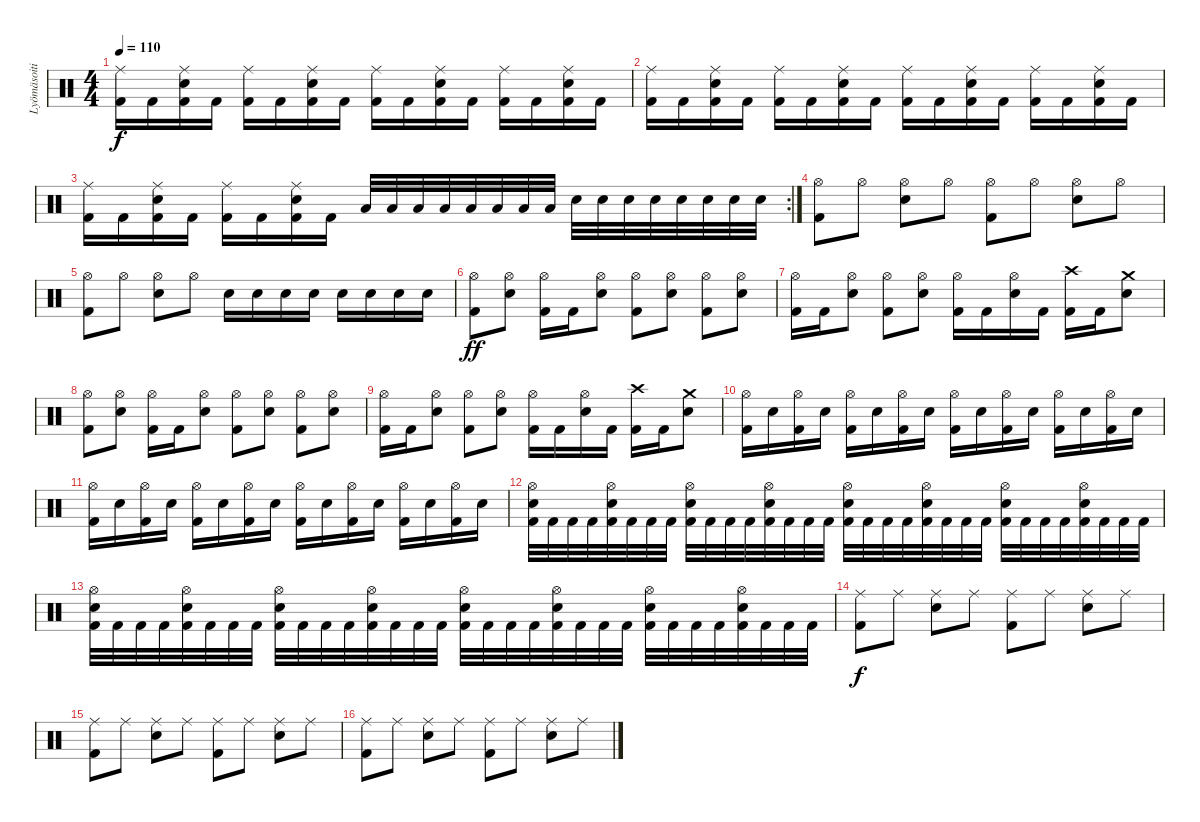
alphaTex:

\track ("Lyömäsoitin" "Lyömäsoiti") {instrument percussion}
\staff {score}
\articulation defaults
\ts (4 4)
\tempo 110
\clef neutral
\ks c
("Ride (middle)" "Kick (hit) 2").16{dy f} "Kick (hit) 2".16 ("Ride (middle)" "Kick (hit) 2" "Snare (hit) 2").16 "Kick (hit) 2".16 ("Ride (middle)" "Kick (hit) 2").16 "Kick (hit) 2".16 ("Ride (middle)" "Kick (hit) 2" "Snare (hit) 2").16 "Kick (hit) 2".16 ("Ride (middle)" "Kick (hit) 2").16 "Kick (hit) 2".16 ("Ride (middle)" "Kick (hit) 2" "Snare (hit) 2").16 "Kick (hit) 2".16 ("Ride (middle)" "Kick (hit) 2").16 "Kick (hit) 2".16 ("Ride (middle)" "Kick (hit) 2" "Snare (hit) 2").16 "Kick (hit) 2".16 |
("Ride (middle)" "Kick (hit) 2").16 "Kick (hit) 2".16 ("Ride (middle)" "Kick (hit) 2" "Snare (hit) 2").16 "Kick (hit) 2".16 ("Ride (middle)" "Kick (hit) 2").16 "Kick (hit) 2".16 ("Ride (middle)" "Kick (hit) 2" "Snare (hit) 2").16 "Kick (hit) 2".16 ("Ride (middle)" "Kick (hit) 2").16 "Kick (hit) 2".16 ("Ride (middle)" "Kick (hit) 2" "Snare (hit) 2").16 "Kick (hit) 2".16 ("Ride (middle)" "Kick (hit) 2").16 "Kick (hit) 2".16 ("Ride (middle)" "Kick (hit) 2" "Snare (hit) 2").16 "Kick (hit) 2".16 |
\rc 2
("Ride (middle)" "Kick (hit) 2").16 "Kick (hit) 2".16 ("Ride (middle)" "Kick (hit) 2" "Snare (hit) 2").16 "Kick (hit) 2".16 ("Ride (middle)" "Kick (hit) 2").16 "Kick (hit) 2".16 ("Ride (middle)" "Kick (hit) 2" "Snare (hit) 2").16 "Kick (hit) 2".16 "Low Tom (hit)".32 "Low Tom (hit)".32 "Low Tom (hit)".32 "Low Tom (hit)".32 "Low Tom (hit)".32 "Low Tom (hit)".32 "Low Tom (hit)".32 "Low Tom (hit)".32 "Snare (hit) 2".32 "Snare (hit) 2".32 "Snare (hit) 2".32 "Snare (hit) 2".32 "Snare (hit) 2".32 "Snare (hit) 2".32 "Snare (hit) 2".32 "Snare (hit) 2".32 |
("Hi-Hat (open)" "Kick (hit) 2").8 "Hi-Hat (open)".8 ("Hi-Hat (open)" "Snare (hit) 2").8 "Hi-Hat (open)".8 ("Hi-Hat (open)" "Kick (hit) 2").8 "Hi-Hat (open)".8 ("Hi-Hat (open)" "Snare (hit) 2").8 "Hi-Hat (open)".8 |
("Hi-Hat (open)" "Kick (hit) 2").8 "Hi-Hat (open)".8 ("Hi-Hat (open)" "Snare (hit) 2").8 "Hi-Hat (open)".8 "Snare (hit) 2".16 "Snare (hit) 2".16 "Snare (hit) 2".16 "Snare (hit) 2".16 "Snare (hit) 2".16 "Snare (hit) 2".16 "Snare (hit) 2".16 "Snare (hit) 2".16 |
("Hi-Hat (open)" "Kick (hit) 2").8{dy ff} ("Hi-Hat (open)" "Snare (hit) 2").8 ("Hi-Hat (open)" "Kick (hit) 2").16 "Kick (hit) 2".16 ("Hi-Hat (open)" "Snare (hit) 2").8 ("Hi-Hat (open)" "Kick (hit) 2").8 ("Hi-Hat (open)" "Snare (hit) 2").8 ("Hi-Hat (open)" "Kick (hit) 2").8 ("Hi-Hat (open)" "Snare (hit) 2").8 |
("Hi-Hat (open)" "Kick (hit) 2").16 "Kick (hit) 2".16 ("Hi-Hat (open)" "Snare (hit) 2").8 ("Hi-Hat (open)" "Kick (hit) 2").8 ("Hi-Hat (open)" "Snare (hit) 2").8 ("Hi-Hat (open)" "Kick (hit) 2").16 "Kick (hit) 2".16 ("Hi-Hat (open)" "Snare (hit) 2").16 "Kick (hit) 2".16 ("Crash high (hit)" "Kick (hit) 2").16 "Kick (hit) 2".16 ("Crash medium (hit)" "Snare (hit) 2").8 |
("Hi-Hat (open)" "Kick (hit) 2").8 ("Hi-Hat (open)" "Snare (hit) 2").8 ("Hi-Hat (open)" "Kick (hit) 2").16 "Kick (hit) 2".16 ("Hi-Hat (open)" "Snare (hit) 2").8 ("Hi-Hat (open)" "Kick (hit) 2").8 ("Hi-Hat (open)" "Snare (hit) 2").8 ("Hi-Hat (open)" "Kick (hit) 2").8 ("Hi-Hat (open)" "Snare (hit) 2").8 |
("Hi-Hat (open)" "Kick (hit) 2").16 "Kick (hit) 2".16 ("Hi-Hat (open)" "Snare (hit) 2").8 ("Hi-Hat (open)" "Kick (hit) 2").8 ("Hi-Hat (open)" "Snare (hit) 2").8 ("Hi-Hat (open)" "Kick (hit) 2").16 "Kick (hit) 2".16 ("Hi-Hat (open)" "Snare (hit) 2").16 "Kick (hit) 2".16 ("Crash high (hit)" "Kick (hit) 2").16 "Kick (hit) 2".16 ("Crash medium (hit)" "Snare (hit) 2").8 |
("Hi-Hat (open)" "Kick (hit) 2").16 "Snare (hit) 2".16 ("Hi-Hat (open)" "Kick (hit) 2").16 "Snare (hit) 2".16 ("Hi-Hat (open)" "Kick (hit) 2").16 "Snare (hit) 2".16 ("Hi-Hat (open)" "Kick (hit) 2").16 "Snare (hit) 2".16 ("Hi-Hat (open)" "Kick (hit) 2").16 "Snare (hit) 2".16 ("Hi-Hat (open)" "Kick (hit) 2").16 "Snare (hit) 2".16 ("Hi-Hat (open)" "Kick (hit) 2").16 "Snare (hit) 2".16 ("Hi-Hat (open)" "Kick (hit) 2").16 "Snare (hit) 2".16 |
("Hi-Hat (open)" "Kick (hit) 2").16 "Snare (hit) 2".16 ("Hi-Hat (open)" "Kick (hit) 2").16 "Snare (hit) 2".16 ("Hi-Hat (open)" "Kick (hit) 2").16 "Snare (hit) 2".16 ("Hi-Hat (open)" "Kick (hit) 2").16 "Snare (hit) 2".16 ("Hi-Hat (open)" "Kick (hit) 2").16 "Snare (hit) 2".16 ("Hi-Hat (open)" "Kick (hit) 2").16 "Snare (hit) 2".16 ("Hi-Hat (open)" "Kick (hit) 2").16 "Snare (hit) 2".16 ("Hi-Hat (open)" "Kick (hit) 2").16 "Snare (hit) 2".16 |
("Hi-Hat (open)" "Snare (hit) 2" "Kick (hit) 2").32 "Kick (hit) 2".32 "Kick (hit) 2".32 "Kick (hit) 2".32 ("Hi-Hat (open)" "Snare (hit) 2" "Kick (hit) 2").32 "Kick (hit) 2".32 "Kick (hit) 2".32 "Kick (hit) 2".32 ("Hi-Hat (open)" "Snare (hit) 2" "Kick (hit) 2").32 "Kick (hit) 2".32 "Kick (hit) 2".32 "Kick (hit) 2".32 ("Hi-Hat (open)" "Snare (hit) 2" "Kick (hit) 2").32 "Kick (hit) 2".32 "Kick (hit) 2".32 "Kick (hit) 2".32 ("Hi-Hat (open)" "Snare (hit) 2" "Kick (hit) 2").32 "Kick (hit) 2".32 "Kick (hit) 2".32 "Kick (hit) 2".32 ("Hi-Hat (open)" "Snare (hit) 2" "Kick (hit) 2").32 "Kick (hit) 2".32 "Kick (hit) 2".32 "Kick (hit) 2".32 ("Hi-Hat (open)" "Snare (hit) 2" "Kick (hit) 2").32 "Kick (hit) 2".32 "Kick (hit) 2".32 "Kick (hit) 2".32 ("Hi-Hat (open)" "Snare (hit) 2" "Kick (hit) 2").32 "Kick (hit) 2".32 "Kick (hit) 2".32 "Kick (hit) 2".32 |
("Hi-Hat (open)" "Snare (hit) 2" "Kick (hit) 2").32 "Kick (hit) 2".32 "Kick (hit) 2".32 "Kick (hit) 2".32 ("Hi-Hat (open)" "Snare (hit) 2" "Kick (hit) 2").32 "Kick (hit) 2".32 "Kick (hit) 2".32 "Kick (hit) 2".32 ("Hi-Hat (open)" "Snare (hit) 2" "Kick (hit) 2").32 "Kick (hit) 2".32 "Kick (hit) 2".32 "Kick (hit) 2".32 ("Hi-Hat (open)" "Snare (hit) 2" "Kick (hit) 2").32 "Kick (hit) 2".32 "Kick (hit) 2".32 "Kick (hit) 2".32 ("Hi-Hat (open)" "Snare (hit) 2" "Kick (hit) 2").32 "Kick (hit) 2".32 "Kick (hit) 2".32 "Kick (hit) 2".32 ("Hi-Hat (open)" "Snare (hit) 2" "Kick (hit) 2").32 "Kick (hit) 2".32 "Kick (hit) 2".32 "Kick (hit) 2".32 ("Hi-Hat (open)" "Snare (hit) 2" "Kick (hit) 2").32 "Kick (hit) 2".32 "Kick (hit) 2".32 "Kick (hit) 2".32 ("Hi-Hat (open)" "Snare (hit) 2" "Kick (hit) 2").32 "Kick (hit) 2".32 "Kick (hit) 2".32 "Kick (hit) 2".32 |
("Ride (middle)" "Kick (hit) 2").8{dy f} "Ride (middle)".8 ("Ride (middle)" "Snare (hit) 2").8 "Ride (middle)".8 ("Ride (middle)" "Kick (hit) 2").8 "Ride (middle)".8 ("Ride (middle)" "Snare (hit) 2").8 "Ride (middle)".8 |
("Ride (middle)" "Kick (hit) 2").8 "Ride (middle)".8 ("Ride (middle)" "Snare (hit) 2").8 "Ride (middle)".8 ("Ride (middle)" "Kick (hit) 2").8 "Ride (middle)".8 ("Ride (middle)" "Snare (hit) 2").8 "Ride (middle)".8 |
("Ride (middle)" "Kick (hit) 2").8 "Ride (middle)".8 ("Ride (middle)" "Snare (hit) 2").8 "Ride (middle)".8 ("Ride (middle)" "Kick (hit) 2").8 "Ride (middle)".8 ("Ride (middle)" "Snare (hit) 2").8 "Ride (middle)".8
